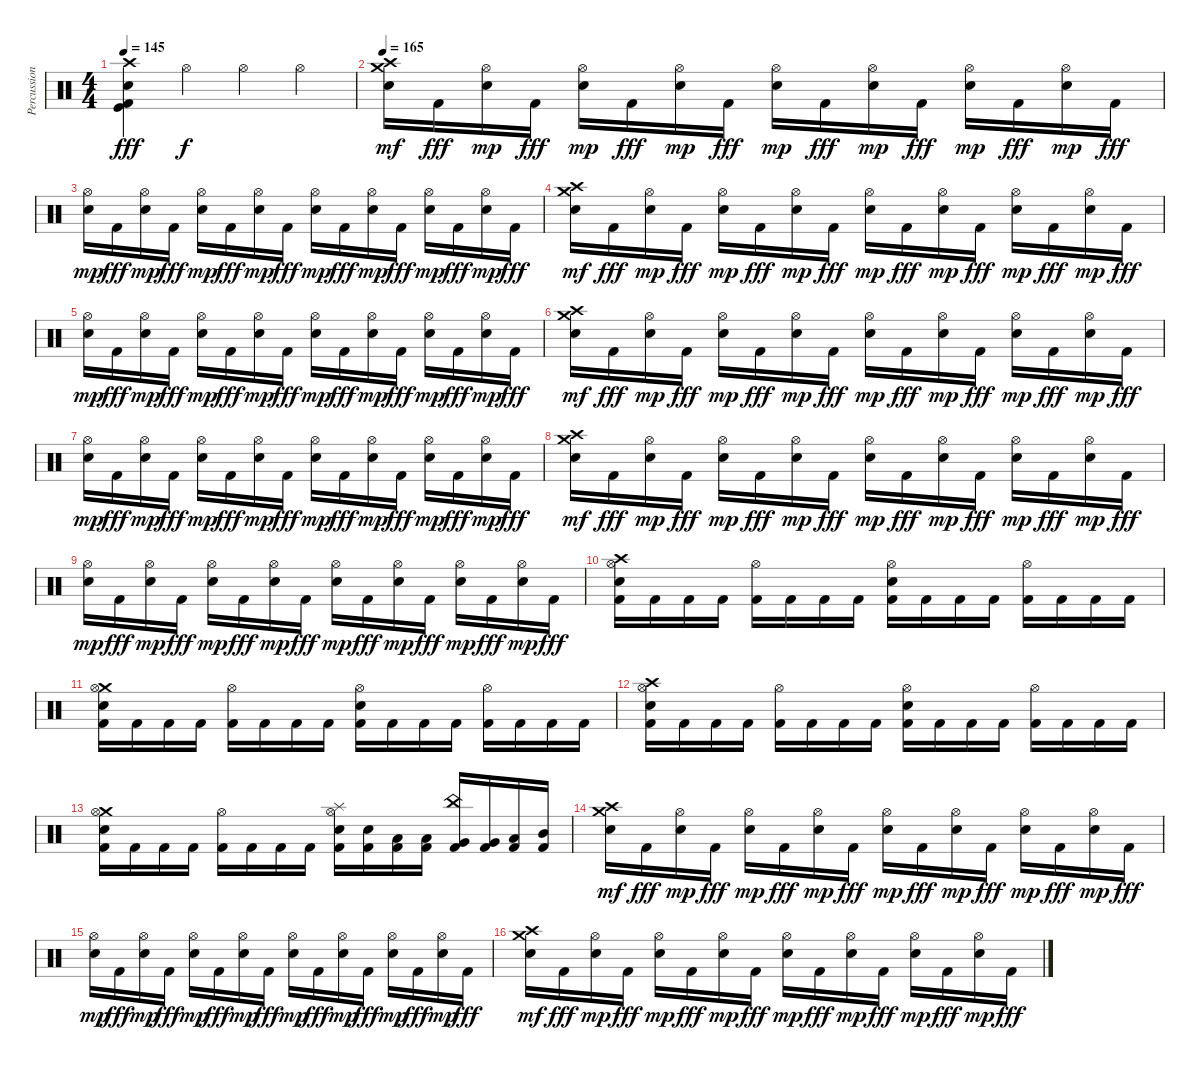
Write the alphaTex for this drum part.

\track ("Percussions" "Percussion") {instrument percussion}
\staff {score}
\articulation defaults
\ts (4 4)
\tempo 145
\clef neutral
\ks c
("Crash high (hit)" "Electric Snare (hit)" "Kick (hit)" "Kick (hit) 2").4{dy fff} "Hi-Hat (open)".4{dy f} "Hi-Hat (open)".4 "Hi-Hat (open)".4 |
\tempo 165
("Crash medium (hit)" "Crash high (hit)" "Electric Snare (hit)").16{dy mf} "Kick (hit) 2".16{dy fff} ("Hi-Hat (open)" "Electric Snare (hit)").16{dy mp} "Kick (hit) 2".16{dy fff} ("Hi-Hat (open)" "Electric Snare (hit)").16{dy mp} "Kick (hit) 2".16{dy fff} ("Hi-Hat (open)" "Electric Snare (hit)").16{dy mp} "Kick (hit) 2".16{dy fff} ("Hi-Hat (open)" "Electric Snare (hit)").16{dy mp} "Kick (hit) 2".16{dy fff} ("Hi-Hat (open)" "Electric Snare (hit)").16{dy mp} "Kick (hit) 2".16{dy fff} ("Hi-Hat (open)" "Electric Snare (hit)").16{dy mp} "Kick (hit) 2".16{dy fff} ("Hi-Hat (open)" "Electric Snare (hit)").16{dy mp} "Kick (hit) 2".16{dy fff} |
("Hi-Hat (open)" "Electric Snare (hit)").16{dy mp} "Kick (hit) 2".16{dy fff} ("Hi-Hat (open)" "Electric Snare (hit)").16{dy mp} "Kick (hit) 2".16{dy fff} ("Hi-Hat (open)" "Electric Snare (hit)").16{dy mp} "Kick (hit) 2".16{dy fff} ("Hi-Hat (open)" "Electric Snare (hit)").16{dy mp} "Kick (hit) 2".16{dy fff} ("Hi-Hat (open)" "Electric Snare (hit)").16{dy mp} "Kick (hit) 2".16{dy fff} ("Hi-Hat (open)" "Electric Snare (hit)").16{dy mp} "Kick (hit) 2".16{dy fff} ("Hi-Hat (open)" "Electric Snare (hit)").16{dy mp} "Kick (hit) 2".16{dy fff} ("Hi-Hat (open)" "Electric Snare (hit)").16{dy mp} "Kick (hit) 2".16{dy fff} |
("Crash medium (hit)" "Crash high (hit)" "Electric Snare (hit)").16{dy mf} "Kick (hit) 2".16{dy fff} ("Hi-Hat (open)" "Electric Snare (hit)").16{dy mp} "Kick (hit) 2".16{dy fff} ("Hi-Hat (open)" "Electric Snare (hit)").16{dy mp} "Kick (hit) 2".16{dy fff} ("Hi-Hat (open)" "Electric Snare (hit)").16{dy mp} "Kick (hit) 2".16{dy fff} ("Hi-Hat (open)" "Electric Snare (hit)").16{dy mp} "Kick (hit) 2".16{dy fff} ("Hi-Hat (open)" "Electric Snare (hit)").16{dy mp} "Kick (hit) 2".16{dy fff} ("Hi-Hat (open)" "Electric Snare (hit)").16{dy mp} "Kick (hit) 2".16{dy fff} ("Hi-Hat (open)" "Electric Snare (hit)").16{dy mp} "Kick (hit) 2".16{dy fff} |
("Hi-Hat (open)" "Electric Snare (hit)").16{dy mp} "Kick (hit) 2".16{dy fff} ("Hi-Hat (open)" "Electric Snare (hit)").16{dy mp} "Kick (hit) 2".16{dy fff} ("Hi-Hat (open)" "Electric Snare (hit)").16{dy mp} "Kick (hit) 2".16{dy fff} ("Hi-Hat (open)" "Electric Snare (hit)").16{dy mp} "Kick (hit) 2".16{dy fff} ("Hi-Hat (open)" "Electric Snare (hit)").16{dy mp} "Kick (hit) 2".16{dy fff} ("Hi-Hat (open)" "Electric Snare (hit)").16{dy mp} "Kick (hit) 2".16{dy fff} ("Hi-Hat (open)" "Electric Snare (hit)").16{dy mp} "Kick (hit) 2".16{dy fff} ("Hi-Hat (open)" "Electric Snare (hit)").16{dy mp} "Kick (hit) 2".16{dy fff} |
("Crash medium (hit)" "Crash high (hit)" "Electric Snare (hit)").16{dy mf} "Kick (hit) 2".16{dy fff} ("Hi-Hat (open)" "Electric Snare (hit)").16{dy mp} "Kick (hit) 2".16{dy fff} ("Hi-Hat (open)" "Electric Snare (hit)").16{dy mp} "Kick (hit) 2".16{dy fff} ("Hi-Hat (open)" "Electric Snare (hit)").16{dy mp} "Kick (hit) 2".16{dy fff} ("Hi-Hat (open)" "Electric Snare (hit)").16{dy mp} "Kick (hit) 2".16{dy fff} ("Hi-Hat (open)" "Electric Snare (hit)").16{dy mp} "Kick (hit) 2".16{dy fff} ("Hi-Hat (open)" "Electric Snare (hit)").16{dy mp} "Kick (hit) 2".16{dy fff} ("Hi-Hat (open)" "Electric Snare (hit)").16{dy mp} "Kick (hit) 2".16{dy fff} |
("Hi-Hat (open)" "Electric Snare (hit)").16{dy mp} "Kick (hit) 2".16{dy fff} ("Hi-Hat (open)" "Electric Snare (hit)").16{dy mp} "Kick (hit) 2".16{dy fff} ("Hi-Hat (open)" "Electric Snare (hit)").16{dy mp} "Kick (hit) 2".16{dy fff} ("Hi-Hat (open)" "Electric Snare (hit)").16{dy mp} "Kick (hit) 2".16{dy fff} ("Hi-Hat (open)" "Electric Snare (hit)").16{dy mp} "Kick (hit) 2".16{dy fff} ("Hi-Hat (open)" "Electric Snare (hit)").16{dy mp} "Kick (hit) 2".16{dy fff} ("Hi-Hat (open)" "Electric Snare (hit)").16{dy mp} "Kick (hit) 2".16{dy fff} ("Hi-Hat (open)" "Electric Snare (hit)").16{dy mp} "Kick (hit) 2".16{dy fff} |
("Crash medium (hit)" "Crash high (hit)" "Electric Snare (hit)").16{dy mf} "Kick (hit) 2".16{dy fff} ("Hi-Hat (open)" "Electric Snare (hit)").16{dy mp} "Kick (hit) 2".16{dy fff} ("Hi-Hat (open)" "Electric Snare (hit)").16{dy mp} "Kick (hit) 2".16{dy fff} ("Hi-Hat (open)" "Electric Snare (hit)").16{dy mp} "Kick (hit) 2".16{dy fff} ("Hi-Hat (open)" "Electric Snare (hit)").16{dy mp} "Kick (hit) 2".16{dy fff} ("Hi-Hat (open)" "Electric Snare (hit)").16{dy mp} "Kick (hit) 2".16{dy fff} ("Hi-Hat (open)" "Electric Snare (hit)").16{dy mp} "Kick (hit) 2".16{dy fff} ("Hi-Hat (open)" "Electric Snare (hit)").16{dy mp} "Kick (hit) 2".16{dy fff} |
("Hi-Hat (open)" "Electric Snare (hit)").16{dy mp} "Kick (hit) 2".16{dy fff} ("Hi-Hat (open)" "Electric Snare (hit)").16{dy mp} "Kick (hit) 2".16{dy fff} ("Hi-Hat (open)" "Electric Snare (hit)").16{dy mp} "Kick (hit) 2".16{dy fff} ("Hi-Hat (open)" "Electric Snare (hit)").16{dy mp} "Kick (hit) 2".16{dy fff} ("Hi-Hat (open)" "Electric Snare (hit)").16{dy mp} "Kick (hit) 2".16{dy fff} ("Hi-Hat (open)" "Electric Snare (hit)").16{dy mp} "Kick (hit) 2".16{dy fff} ("Hi-Hat (open)" "Electric Snare (hit)").16{dy mp} "Kick (hit) 2".16{dy fff} ("Hi-Hat (open)" "Electric Snare (hit)").16{dy mp} "Kick (hit) 2".16{dy fff} |
("Crash high (hit)" "Hi-Hat (open)" "Electric Snare (hit)" "Kick (hit) 2").16 "Kick (hit) 2".16 "Kick (hit) 2".16 "Kick (hit) 2".16 ("Hi-Hat (open)" "Kick (hit) 2").16 "Kick (hit) 2".16 "Kick (hit) 2".16 "Kick (hit) 2".16 ("Hi-Hat (open)" "Electric Snare (hit)" "Kick (hit) 2").16 "Kick (hit) 2".16 "Kick (hit) 2".16 "Kick (hit) 2".16 ("Hi-Hat (open)" "Kick (hit) 2").16 "Kick (hit) 2".16 "Kick (hit) 2".16 "Kick (hit) 2".16 |
("Crash medium (hit)" "Hi-Hat (open)" "Electric Snare (hit)" "Kick (hit) 2").16 "Kick (hit) 2".16 "Kick (hit) 2".16 "Kick (hit) 2".16 ("Hi-Hat (open)" "Kick (hit) 2").16 "Kick (hit) 2".16 "Kick (hit) 2".16 "Kick (hit) 2".16 ("Hi-Hat (open)" "Electric Snare (hit)" "Kick (hit) 2").16 "Kick (hit) 2".16 "Kick (hit) 2".16 "Kick (hit) 2".16 ("Hi-Hat (open)" "Kick (hit) 2").16 "Kick (hit) 2".16 "Kick (hit) 2".16 "Kick (hit) 2".16 |
("Crash high (hit)" "Hi-Hat (open)" "Electric Snare (hit)" "Kick (hit) 2").16 "Kick (hit) 2".16 "Kick (hit) 2".16 "Kick (hit) 2".16 ("Hi-Hat (open)" "Kick (hit) 2").16 "Kick (hit) 2".16 "Kick (hit) 2".16 "Kick (hit) 2".16 ("Hi-Hat (open)" "Electric Snare (hit)" "Kick (hit) 2").16 "Kick (hit) 2".16 "Kick (hit) 2".16 "Kick (hit) 2".16 ("Hi-Hat (open)" "Kick (hit) 2").16 "Kick (hit) 2".16 "Kick (hit) 2".16 "Kick (hit) 2".16 |
("Crash medium (hit)" "Hi-Hat (open)" "Electric Snare (hit)" "Kick (hit) 2").16 "Kick (hit) 2".16 "Kick (hit) 2".16 "Kick (hit) 2".16 ("Hi-Hat (open)" "Kick (hit) 2").16 "Kick (hit) 2".16 "Kick (hit) 2".16 "Kick (hit) 2".16 ("Splash (hit)" "Hi-Hat (open)" "Electric Snare (hit)" "Kick (hit) 2").16 ("Electric Snare (hit)" "Kick (hit) 2").16 ("Low Floor Tom (hit)" "Kick (hit) 2").16 ("Low Floor Tom (hit)" "Kick (hit) 2").16 ("China (hit)" "Very Low Tom (hit)" "Kick (hit) 2").16 ("Very Low Tom (hit)" "Kick (hit) 2").16 ("Low Tom (hit)" "Kick (hit) 2").16 ("Mid Tom (hit)" "Kick (hit) 2").16 |
("Crash medium (hit)" "Crash high (hit)" "Electric Snare (hit)").16{dy mf} "Kick (hit) 2".16{dy fff} ("Hi-Hat (open)" "Electric Snare (hit)").16{dy mp} "Kick (hit) 2".16{dy fff} ("Hi-Hat (open)" "Electric Snare (hit)").16{dy mp} "Kick (hit) 2".16{dy fff} ("Hi-Hat (open)" "Electric Snare (hit)").16{dy mp} "Kick (hit) 2".16{dy fff} ("Hi-Hat (open)" "Electric Snare (hit)").16{dy mp} "Kick (hit) 2".16{dy fff} ("Hi-Hat (open)" "Electric Snare (hit)").16{dy mp} "Kick (hit) 2".16{dy fff} ("Hi-Hat (open)" "Electric Snare (hit)").16{dy mp} "Kick (hit) 2".16{dy fff} ("Hi-Hat (open)" "Electric Snare (hit)").16{dy mp} "Kick (hit) 2".16{dy fff} |
("Hi-Hat (open)" "Electric Snare (hit)").16{dy mp} "Kick (hit) 2".16{dy fff} ("Hi-Hat (open)" "Electric Snare (hit)").16{dy mp} "Kick (hit) 2".16{dy fff} ("Hi-Hat (open)" "Electric Snare (hit)").16{dy mp} "Kick (hit) 2".16{dy fff} ("Hi-Hat (open)" "Electric Snare (hit)").16{dy mp} "Kick (hit) 2".16{dy fff} ("Hi-Hat (open)" "Electric Snare (hit)").16{dy mp} "Kick (hit) 2".16{dy fff} ("Hi-Hat (open)" "Electric Snare (hit)").16{dy mp} "Kick (hit) 2".16{dy fff} ("Hi-Hat (open)" "Electric Snare (hit)").16{dy mp} "Kick (hit) 2".16{dy fff} ("Hi-Hat (open)" "Electric Snare (hit)").16{dy mp} "Kick (hit) 2".16{dy fff} |
("Crash medium (hit)" "Crash high (hit)" "Electric Snare (hit)").16{dy mf} "Kick (hit) 2".16{dy fff} ("Hi-Hat (open)" "Electric Snare (hit)").16{dy mp} "Kick (hit) 2".16{dy fff} ("Hi-Hat (open)" "Electric Snare (hit)").16{dy mp} "Kick (hit) 2".16{dy fff} ("Hi-Hat (open)" "Electric Snare (hit)").16{dy mp} "Kick (hit) 2".16{dy fff} ("Hi-Hat (open)" "Electric Snare (hit)").16{dy mp} "Kick (hit) 2".16{dy fff} ("Hi-Hat (open)" "Electric Snare (hit)").16{dy mp} "Kick (hit) 2".16{dy fff} ("Hi-Hat (open)" "Electric Snare (hit)").16{dy mp} "Kick (hit) 2".16{dy fff} ("Hi-Hat (open)" "Electric Snare (hit)").16{dy mp} "Kick (hit) 2".16{dy fff}
